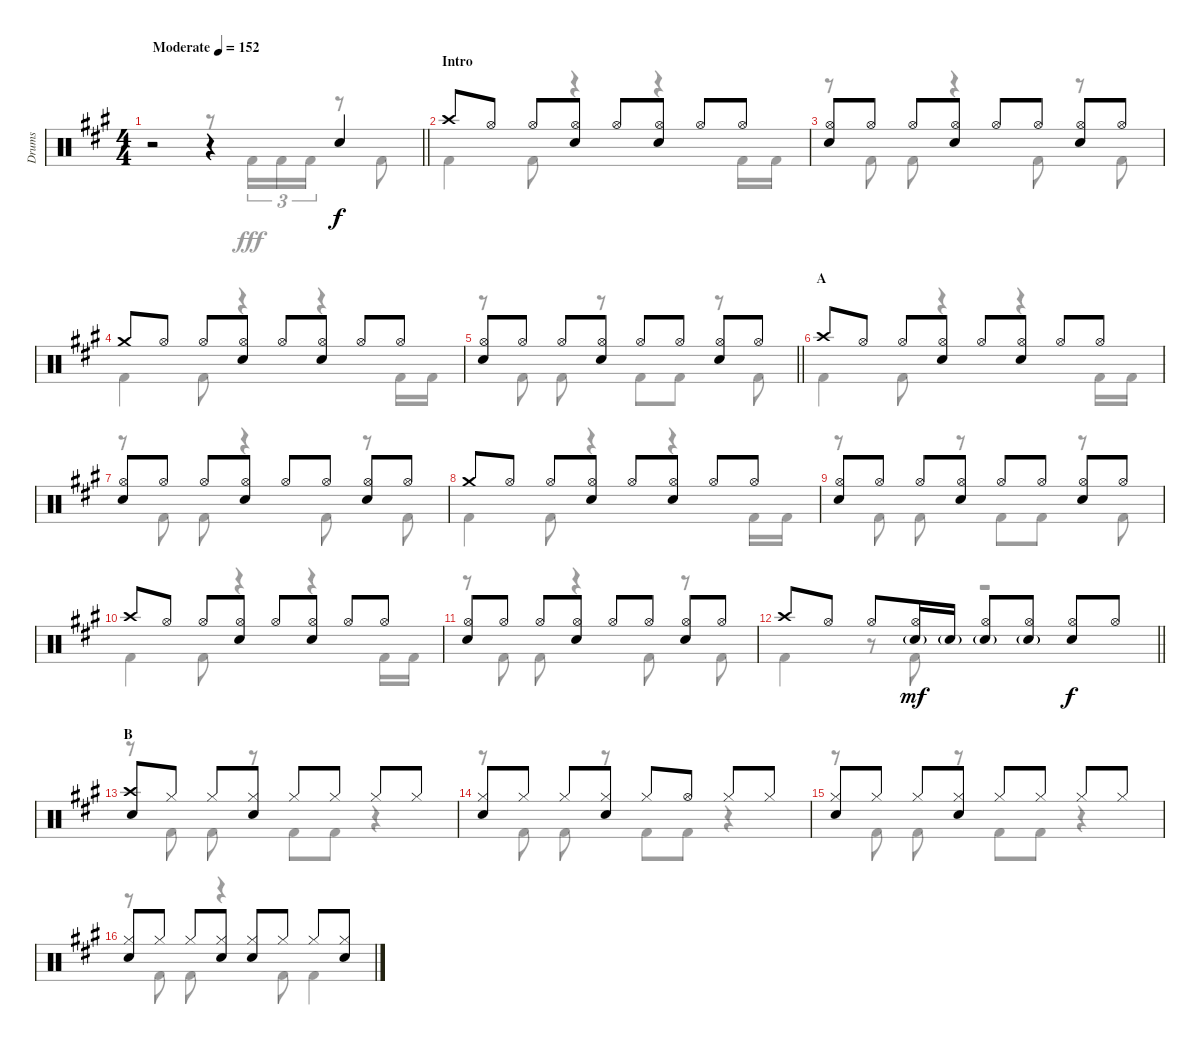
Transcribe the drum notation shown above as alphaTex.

\track ("Drums" "Drums") {instrument percussion}
\staff {score}
\articulation defaults
\voice
\ts (4 4)
\tempo (152 "Moderate")
\clef neutral
\barLineRight lightlight
\ks a
r.2{dy f} r.4 "Snare (hit) 2".4 |
\section ("" "Intro")
"Crash high (hit)".8 "Hi-Hat (open)".8 "Hi-Hat (open)".8 ("Hi-Hat (open)" "Snare (hit) 2").8 "Hi-Hat (open)".8 ("Hi-Hat (open)" "Snare (hit) 2").8 "Hi-Hat (open)".8 "Hi-Hat (open)".8 |
("Hi-Hat (open)" "Snare (hit) 2").8 "Hi-Hat (open)".8 "Hi-Hat (open)".8 ("Hi-Hat (open)" "Snare (hit) 2").8 "Hi-Hat (open)".8 "Hi-Hat (open)".8 ("Hi-Hat (open)" "Snare (hit) 2").8 "Hi-Hat (open)".8 |
"Crash medium (hit)".8 "Hi-Hat (open)".8 "Hi-Hat (open)".8 ("Hi-Hat (open)" "Snare (hit) 2").8 "Hi-Hat (open)".8 ("Hi-Hat (open)" "Snare (hit) 2").8 "Hi-Hat (open)".8 "Hi-Hat (open)".8 |
\barLineRight lightlight
("Hi-Hat (open)" "Snare (hit) 2").8 "Hi-Hat (open)".8 "Hi-Hat (open)".8 ("Hi-Hat (open)" "Snare (hit) 2").8 "Hi-Hat (open)".8 "Hi-Hat (open)".8 ("Hi-Hat (open)" "Snare (hit) 2").8 "Hi-Hat (open)".8 |
\section ("" "A")
"Crash high (hit)".8 "Hi-Hat (open)".8 "Hi-Hat (open)".8 ("Hi-Hat (open)" "Snare (hit) 2").8 "Hi-Hat (open)".8 ("Hi-Hat (open)" "Snare (hit) 2").8 "Hi-Hat (open)".8 "Hi-Hat (open)".8 |
("Hi-Hat (open)" "Snare (hit) 2").8 "Hi-Hat (open)".8 "Hi-Hat (open)".8 ("Hi-Hat (open)" "Snare (hit) 2").8 "Hi-Hat (open)".8 "Hi-Hat (open)".8 ("Hi-Hat (open)" "Snare (hit) 2").8 "Hi-Hat (open)".8 |
"Crash medium (hit)".8 "Hi-Hat (open)".8 "Hi-Hat (open)".8 ("Hi-Hat (open)" "Snare (hit) 2").8 "Hi-Hat (open)".8 ("Hi-Hat (open)" "Snare (hit) 2").8 "Hi-Hat (open)".8 "Hi-Hat (open)".8 |
("Hi-Hat (open)" "Snare (hit) 2").8 "Hi-Hat (open)".8 "Hi-Hat (open)".8 ("Hi-Hat (open)" "Snare (hit) 2").8 "Hi-Hat (open)".8 "Hi-Hat (open)".8 ("Hi-Hat (open)" "Snare (hit) 2").8 "Hi-Hat (open)".8 |
"Crash high (hit)".8 "Hi-Hat (open)".8 "Hi-Hat (open)".8 ("Hi-Hat (open)" "Snare (hit) 2").8 "Hi-Hat (open)".8 ("Hi-Hat (open)" "Snare (hit) 2").8 "Hi-Hat (open)".8 "Hi-Hat (open)".8 |
("Hi-Hat (open)" "Snare (hit) 2").8 "Hi-Hat (open)".8 "Hi-Hat (open)".8 ("Hi-Hat (open)" "Snare (hit) 2").8 "Hi-Hat (open)".8 "Hi-Hat (open)".8 ("Hi-Hat (open)" "Snare (hit) 2").8 "Hi-Hat (open)".8 |
\barLineRight lightlight "Crash high (hit)".8 "Hi-Hat (open)".8 "Hi-Hat (open)".8
("Hi-Hat (open)" "Snare (hit) 2"{g}).16{dy mf} "Snare (hit) 2"{g}.16 ("Hi-Hat (open)" "Snare (hit) 2"{g}).8 ("Hi-Hat (open)" "Snare (hit) 2"{g}).8 ("Hi-Hat (open)" "Snare (hit) 2").8{dy f} "Hi-Hat (open)".8 |
\section ("" "B")
("Crash high (hit)" "Snare (hit) 2").8 "Hi-Hat (closed)".8 "Hi-Hat (closed)".8 ("Hi-Hat (closed)" "Snare (hit) 2").8 "Hi-Hat (closed)".8 "Hi-Hat (closed)".8 "Hi-Hat (closed)".8 "Hi-Hat (closed)".8 |
("Hi-Hat (closed)" "Snare (hit) 2").8 "Hi-Hat (closed)".8 "Hi-Hat (closed)".8 ("Hi-Hat (closed)" "Snare (hit) 2").8 "Hi-Hat (closed)".8 "Hi-Hat (open)".8 "Hi-Hat (closed)".8 "Hi-Hat (closed)".8 |
("Hi-Hat (closed)" "Snare (hit) 2").8 "Hi-Hat (closed)".8 "Hi-Hat (closed)".8 ("Hi-Hat (closed)" "Snare (hit) 2").8 "Hi-Hat (closed)".8 "Hi-Hat (closed)".8 "Hi-Hat (closed)".8 "Hi-Hat (closed)".8 |
("Hi-Hat (closed)" "Snare (hit) 2").8 "Hi-Hat (closed)".8 "Hi-Hat (closed)".8 ("Hi-Hat (closed)" "Snare (hit) 2").8 ("Hi-Hat (closed)" "Snare (hit) 2").8 "Hi-Hat (closed)".8 "Hi-Hat (closed)".8 ("Hi-Hat (closed)" "Snare (hit) 2").8
\voice
\clef neutral
\ottava regular
\simile none
\barLineRight lightlight
\ks a
r.2{dy fff} r.8 "Kick (hit) 2".16{tu (3 2)} "Kick (hit) 2".16{tu (3 2)} "Kick (hit) 2".16{tu (3 2)} r.8 "Kick (hit) 2".8 |
"Kick (hit) 2".4 "Kick (hit) 2".8 r.4 r.4 "Kick (hit) 2".16 "Kick (hit) 2".16 |
r.8 "Kick (hit) 2".8 "Kick (hit) 2".8 r.4 "Kick (hit) 2".8 r.8 "Kick (hit) 2".8 |
"Kick (hit) 2".4 "Kick (hit) 2".8 r.4 r.4 "Kick (hit) 2".16 "Kick (hit) 2".16 |
\barLineRight lightlight
r.8 "Kick (hit) 2".8 "Kick (hit) 2".8 r.8 "Kick (hit) 2".8 "Kick (hit) 2".8 r.8 "Kick (hit) 2".8 |
"Kick (hit) 2".4 "Kick (hit) 2".8 r.4 r.4 "Kick (hit) 2".16 "Kick (hit) 2".16 |
r.8 "Kick (hit) 2".8 "Kick (hit) 2".8 r.4 "Kick (hit) 2".8 r.8 "Kick (hit) 2".8 |
"Kick (hit) 2".4 "Kick (hit) 2".8 r.4 r.4 "Kick (hit) 2".16 "Kick (hit) 2".16 |
r.8 "Kick (hit) 2".8 "Kick (hit) 2".8 r.8 "Kick (hit) 2".8 "Kick (hit) 2".8 r.8 "Kick (hit) 2".8 |
"Kick (hit) 2".4 "Kick (hit) 2".8 r.4 r.4 "Kick (hit) 2".16 "Kick (hit) 2".16 |
r.8 "Kick (hit) 2".8 "Kick (hit) 2".8 r.4 "Kick (hit) 2".8 r.8 "Kick (hit) 2".8 |
\barLineRight lightlight "Kick (hit) 2".4
r.8 "Kick (hit) 2".8 r.2 |
r.8 "Kick (hit) 2".8 "Kick (hit) 2".8 r.8 "Kick (hit) 2".8 "Kick (hit) 2".8 r.4 |
r.8 "Kick (hit) 2".8 "Kick (hit) 2".8 r.8 "Kick (hit) 2".8 "Kick (hit) 2".8 r.4 |
r.8 "Kick (hit) 2".8 "Kick (hit) 2".8 r.8 "Kick (hit) 2".8 "Kick (hit) 2".8 r.4 |
r.8 "Kick (hit) 2".8 "Kick (hit) 2".8 r.4 "Kick (hit) 2".8 "Kick (hit) 2".4
